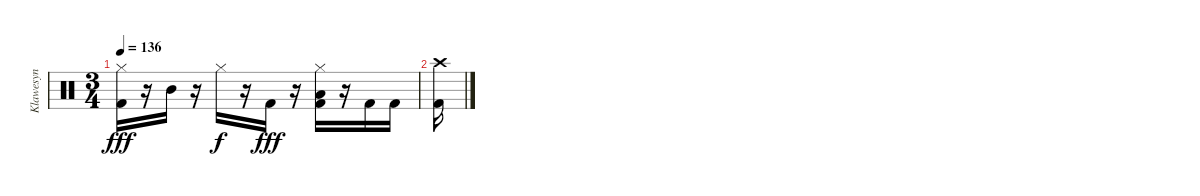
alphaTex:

\track ("Klawesyn" "Klawesyn") {instrument percussion}
\staff {score}
\articulation defaults
\ts (3 4)
\tempo 136
\clef neutral
\ks c
("Hi-Hat (closed)" "Kick (hit) 2").16{dy fff} r.16 "Mid Tom (hit)".16 r.16 "Hi-Hat (closed)".16{dy f} r.16 "Kick (hit) 2".16{dy fff} r.16 ("Hi-Hat (closed)" "Low Tom (hit)" "Kick (hit) 2").16 r.16 "Kick (hit) 2".16 "Kick (hit) 2".16 |
("Crash high (hit)" "Kick (hit) 2").16
